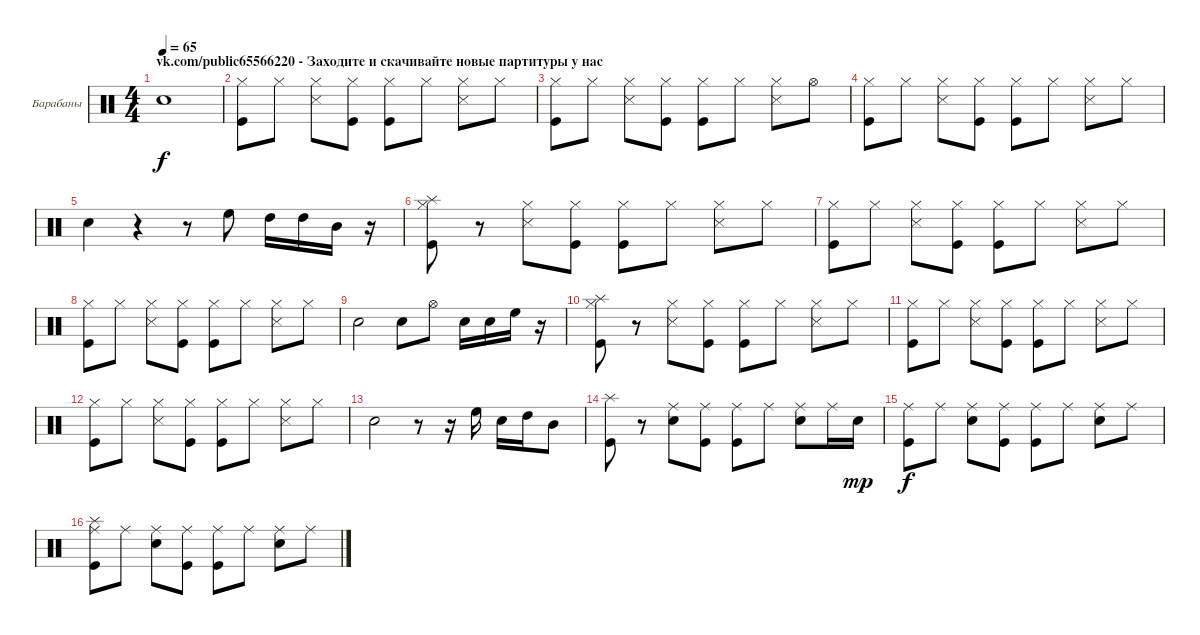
\bracketExtendMode groupsimilarinstruments
\firstSystemTrackNameOrientation horizontal
\otherSystemsTrackNameOrientation horizontal
\track ("Ударные" "Барабаны") {instrument percussion}
\staff {score}
\articulation defaults
\ts (4 4)
\section ("" "vk.com/public65566220 - Заходите и скачивайте новые партитуры у нас")
\tempo 65
\clef neutral
\ks c "Snare (hit) 2".1{dy f}
|
("Hi-Hat (closed)" "Kick (hit)").8 "Hi-Hat (closed)".8 ("Hi-Hat (closed)" "Snare (side stick) 3").8 ("Hi-Hat (closed)" "Kick (hit)").8 ("Hi-Hat (closed)" "Kick (hit)").8 "Hi-Hat (closed)".8 ("Hi-Hat (closed)" "Snare (side stick) 3").8 "Hi-Hat (closed)".8 |
("Hi-Hat (closed)" "Kick (hit)").8 "Hi-Hat (closed)".8 ("Hi-Hat (closed)" "Snare (side stick) 3").8 ("Hi-Hat (closed)" "Kick (hit)").8 ("Hi-Hat (closed)" "Kick (hit)").8 "Hi-Hat (closed)".8 ("Hi-Hat (closed)" "Snare (side stick) 3").8 "Hi-Hat (open)".8 |
("Hi-Hat (closed)" "Kick (hit)").8 "Hi-Hat (closed)".8 ("Hi-Hat (closed)" "Snare (side stick) 3").8 ("Hi-Hat (closed)" "Kick (hit)").8 ("Hi-Hat (closed)" "Kick (hit)").8 "Hi-Hat (closed)".8 ("Hi-Hat (closed)" "Snare (side stick) 3").8 "Hi-Hat (closed)".8 |
"Snare (hit) 2".4 r.4 r.8 "High Floor Tom (hit)".8 "High Tom (hit)".16 "High Tom (hit)".16 "Mid Tom (hit)".16 r.16 |
("Hi-Hat (closed)" "Splash (hit)" "Kick (hit)").8 r.8 ("Hi-Hat (closed)" "Snare (side stick) 3").8 ("Hi-Hat (closed)" "Kick (hit)").8 ("Hi-Hat (closed)" "Kick (hit)").8 "Hi-Hat (closed)".8 ("Hi-Hat (closed)" "Snare (side stick) 3").8 "Hi-Hat (closed)".8 |
("Hi-Hat (closed)" "Kick (hit)").8 "Hi-Hat (closed)".8 ("Hi-Hat (closed)" "Snare (side stick) 3").8 ("Hi-Hat (closed)" "Kick (hit)").8 ("Hi-Hat (closed)" "Kick (hit)").8 "Hi-Hat (closed)".8 ("Hi-Hat (closed)" "Snare (side stick) 3").8 "Hi-Hat (closed)".8 |
("Hi-Hat (closed)" "Kick (hit)").8 "Hi-Hat (closed)".8 ("Hi-Hat (closed)" "Snare (side stick) 3").8 ("Hi-Hat (closed)" "Kick (hit)").8 ("Hi-Hat (closed)" "Kick (hit)").8 "Hi-Hat (closed)".8 ("Hi-Hat (closed)" "Snare (side stick) 3").8 "Hi-Hat (closed)".8 |
"Snare (hit) 2".2 "Snare (hit) 2".8 "Hi-Hat (open)".8 "Snare (hit) 2".16 "Snare (hit) 2".16 "High Floor Tom (hit)".16 r.16 |
("Hi-Hat (closed)" "Splash (hit)" "Kick (hit)").8 r.8 ("Hi-Hat (closed)" "Snare (side stick) 3").8 ("Hi-Hat (closed)" "Kick (hit)").8 ("Hi-Hat (closed)" "Kick (hit)").8 "Hi-Hat (closed)".8 ("Hi-Hat (closed)" "Snare (side stick) 3").8 "Hi-Hat (closed)".8 |
("Hi-Hat (closed)" "Kick (hit)").8 "Hi-Hat (closed)".8 ("Hi-Hat (closed)" "Snare (side stick) 3").8 ("Hi-Hat (closed)" "Kick (hit)").8 ("Hi-Hat (closed)" "Kick (hit)").8 "Hi-Hat (closed)".8 ("Hi-Hat (closed)" "Snare (side stick) 3").8 "Hi-Hat (closed)".8 |
("Hi-Hat (closed)" "Kick (hit)").8 "Hi-Hat (closed)".8 ("Hi-Hat (closed)" "Snare (side stick) 3").8 ("Hi-Hat (closed)" "Kick (hit)").8 ("Hi-Hat (closed)" "Kick (hit)").8 "Hi-Hat (closed)".8 ("Hi-Hat (closed)" "Snare (side stick) 3").8 "Hi-Hat (closed)".8 |
"Snare (hit) 2".2 r.8 r.16 "High Floor Tom (hit)".16 "Snare (hit) 2".16 "High Tom (hit)".16 "Mid Tom (hit)".8 |
("Splash (hit)" "Kick (hit)").8 r.8 ("Ride (middle)" "Snare (hit) 2").8 ("Ride (middle)" "Kick (hit)").8 ("Ride (middle)" "Kick (hit)").8 "Ride (middle)".8 ("Ride (middle)" "Snare (hit) 2").8 "Ride (middle)".16 "Snare (hit) 2".16{dy mp} |
("Ride (middle)" "Kick (hit)").8{dy f} "Ride (middle)".8 ("Ride (middle)" "Snare (hit) 2").8 ("Ride (middle)" "Kick (hit)").8 ("Ride (middle)" "Kick (hit)").8 "Ride (middle)".8 ("Ride (middle)" "Snare (hit) 2").8 "Ride (middle)".8 |
("Ride (middle)" "Splash (hit)" "Kick (hit)").8 "Ride (middle)".8 ("Ride (middle)" "Snare (hit) 2").8 ("Ride (middle)" "Kick (hit)").8 ("Ride (middle)" "Kick (hit)").8 "Ride (middle)".8 ("Ride (middle)" "Snare (hit) 2").8 "Ride (middle)".8
